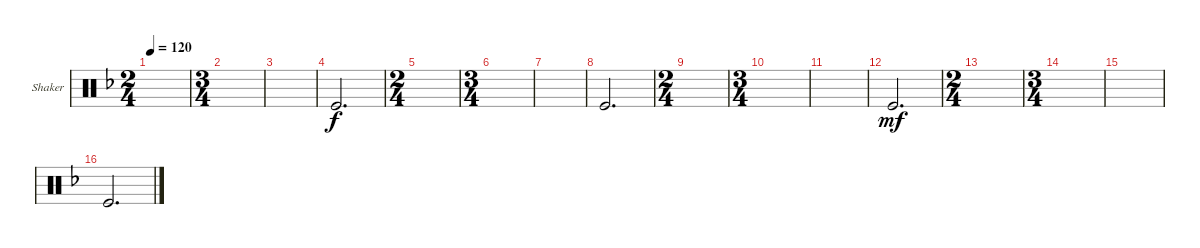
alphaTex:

\defaultSystemsLayout 4
\bracketExtendMode groupsimilarinstruments
\firstSystemTrackNameOrientation horizontal
\otherSystemsTrackNameOrientation horizontal
\track ("Shaker" "Shaker") {instrument percussion}
\staff {score}
\articulation defaults
\ts (2 4)
\tempo 120
\clef neutral
\ks f
|
\ts (3 4)
|
|
"Kick (hit)".2{d} |
\ts (2 4)
|
\ts (3 4)
|
|
"Kick (hit)".2{d} |
\ts (2 4)
|
\ts (3 4)
|
|
"Kick (hit)".2{d dy mf} |
\ts (2 4)
|
\ts (3 4)
|
|
"Kick (hit)".2{d}
